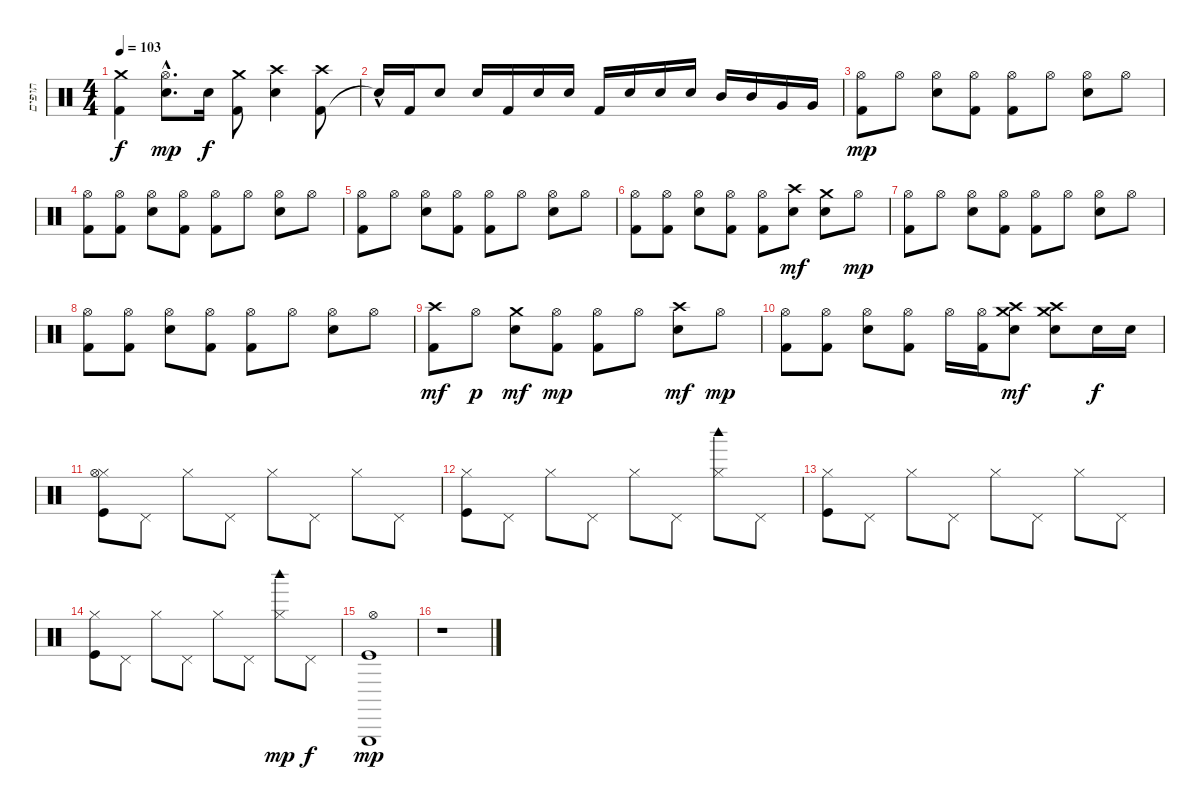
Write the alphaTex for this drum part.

\track ("תופים" "תופים") {instrument percussion}
\staff {score}
\articulation defaults
\ts (4 4)
\tempo 103
\clef neutral
\ks c
("Kick (hit) 2" "Crash medium (hit)").4{dy f} ("Hi-Hat (open)"{hac} "Electric Snare (hit)"{hac}).8{d dy mp} "Electric Snare (hit)".16{dy f} ("Kick (hit) 2" "Crash medium (hit)").8 ("Electric Snare (hit)" "Crash high (hit)").4 ("Kick (hit) 2" "Crash high (hit)").8 |
"Snare (hit)"{hac t}.16 "Kick (hit) 2".16 "Electric Snare (hit)".8 "Electric Snare (hit)".16 "Kick (hit) 2".16 "Electric Snare (hit)".16 "Electric Snare (hit)".16 "Kick (hit) 2".16 "Electric Snare (hit)".16 "Electric Snare (hit)".16 "Electric Snare (hit)".16 "Mid Tom (hit)".16 "Mid Tom (hit)".16 "Very Low Tom (hit)".16 "Very Low Tom (hit)".16 |
("Kick (hit) 2" "Hi-Hat (open)").8{dy mp} "Hi-Hat (open)".8 ("Electric Snare (hit)" "Hi-Hat (open)").8 ("Kick (hit) 2" "Hi-Hat (open)").8 ("Kick (hit) 2" "Hi-Hat (open)").8 "Hi-Hat (open)".8 ("Electric Snare (hit)" "Hi-Hat (open)").8 "Hi-Hat (open)".8 |
("Kick (hit) 2" "Hi-Hat (open)").8 ("Kick (hit) 2" "Hi-Hat (open)").8 ("Electric Snare (hit)" "Hi-Hat (open)").8 ("Kick (hit) 2" "Hi-Hat (open)").8 ("Kick (hit) 2" "Hi-Hat (open)").8 "Hi-Hat (open)".8 ("Electric Snare (hit)" "Hi-Hat (open)").8 "Hi-Hat (open)".8 |
("Kick (hit) 2" "Hi-Hat (open)").8 "Hi-Hat (open)".8 ("Electric Snare (hit)" "Hi-Hat (open)").8 ("Kick (hit) 2" "Hi-Hat (open)").8 ("Kick (hit) 2" "Hi-Hat (open)").8 "Hi-Hat (open)".8 ("Electric Snare (hit)" "Hi-Hat (open)").8 "Hi-Hat (open)".8 |
("Kick (hit) 2" "Hi-Hat (open)").8 ("Kick (hit) 2" "Hi-Hat (open)").8 ("Electric Snare (hit)" "Hi-Hat (open)").8 ("Kick (hit) 2" "Hi-Hat (open)").8 ("Kick (hit) 2" "Hi-Hat (open)").8 ("Electric Snare (hit)" "Crash high (hit)").8{dy mf} ("Electric Snare (hit)" "Crash medium (hit)").8 "Hi-Hat (open)".8{dy mp} |
("Kick (hit) 2" "Hi-Hat (open)").8 "Hi-Hat (open)".8 ("Electric Snare (hit)" "Hi-Hat (open)").8 ("Kick (hit) 2" "Hi-Hat (open)").8 ("Kick (hit) 2" "Hi-Hat (open)").8 "Hi-Hat (open)".8 ("Electric Snare (hit)" "Hi-Hat (open)").8 "Hi-Hat (open)".8 |
("Kick (hit) 2" "Hi-Hat (open)").8 ("Kick (hit) 2" "Hi-Hat (open)").8 ("Electric Snare (hit)" "Hi-Hat (open)").8 ("Kick (hit) 2" "Hi-Hat (open)").8 ("Kick (hit) 2" "Hi-Hat (open)").8 "Hi-Hat (open)".8 ("Electric Snare (hit)" "Hi-Hat (open)").8 "Hi-Hat (open)".8 |
("Kick (hit) 2" "Crash high (hit)").8{dy mf} "Hi-Hat (open)".8{dy p} ("Electric Snare (hit)" "Crash medium (hit)").8{dy mf} ("Kick (hit) 2" "Hi-Hat (open)").8{dy mp} ("Kick (hit) 2" "Hi-Hat (open)").8 "Hi-Hat (open)".8 ("Electric Snare (hit)" "Crash high (hit)").8{dy mf} "Hi-Hat (open)".8{dy mp} |
("Kick (hit) 2" "Hi-Hat (open)").8 ("Kick (hit) 2" "Hi-Hat (open)").8 ("Electric Snare (hit)" "Hi-Hat (open)").8 ("Kick (hit) 2" "Hi-Hat (open)").8 "Hi-Hat (open)".16 ("Kick (hit) 2" "Hi-Hat (open)").16 ("Electric Snare (hit)" "Crash medium (hit)" "Crash high (hit)").8{dy mf} ("Electric Snare (hit)" "Crash medium (hit)" "Crash high (hit)").8 "Electric Snare (hit)".16{dy f} "Electric Snare (hit)".16 |
("Hi-Hat (closed)" "Kick (hit)" "Hi-Hat (open)").8 "Pedal Hi-Hat (hit)".8 "Hi-Hat (closed)".8 "Pedal Hi-Hat (hit)".8 "Hi-Hat (closed)".8 "Pedal Hi-Hat (hit)".8 "Hi-Hat (closed)".8 "Pedal Hi-Hat (hit)".8 |
("Hi-Hat (closed)" "Kick (hit)").8 "Pedal Hi-Hat (hit)".8 "Hi-Hat (closed)".8 "Pedal Hi-Hat (hit)".8 "Hi-Hat (closed)".8 "Pedal Hi-Hat (hit)".8 ("Hi-Hat (closed)" "Woodblock high (hit)").8 "Pedal Hi-Hat (hit)".8 |
("Hi-Hat (closed)" "Kick (hit)").8 "Pedal Hi-Hat (hit)".8 "Hi-Hat (closed)".8 "Pedal Hi-Hat (hit)".8 "Hi-Hat (closed)".8 "Pedal Hi-Hat (hit)".8 "Hi-Hat (closed)".8 "Pedal Hi-Hat (hit)".8 |
("Hi-Hat (closed)" "Kick (hit)").8 "Pedal Hi-Hat (hit)".8 "Hi-Hat (closed)".8 "Pedal Hi-Hat (hit)".8 "Hi-Hat (closed)".8 "Pedal Hi-Hat (hit)".8 ("Hi-Hat (closed)" "Woodblock high (hit)").8{dy mp} "Pedal Hi-Hat (hit)".8{dy f} |
("Kick (hit)" "Hi-Hat (open)" "Triangle (hit)").1{dy mp} |
r.1
